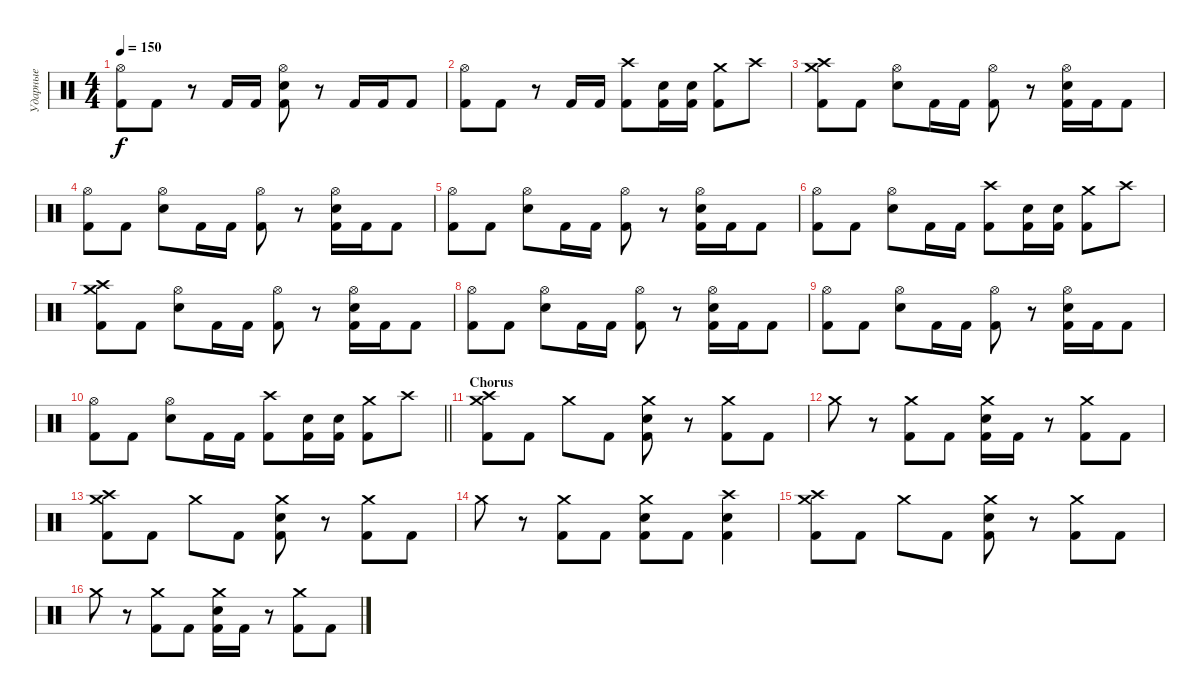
\track ("Ударные" "Ударные") {instrument percussion}
\staff {score}
\articulation defaults
\ts (4 4)
\tempo 150
\clef neutral
\ks c
("Hi-Hat (open)" "Kick (hit) 2").8{dy f} "Kick (hit) 2".8 r.8 "Kick (hit) 2".16 "Kick (hit) 2".16 ("Hi-Hat (open)" "Electric Snare (hit)" "Kick (hit) 2").8 r.8 "Kick (hit) 2".16 "Kick (hit) 2".16 "Kick (hit) 2".8 |
("Hi-Hat (open)" "Kick (hit) 2").8 "Kick (hit) 2".8 r.8 "Kick (hit) 2".16 "Kick (hit) 2".16 ("Crash high (hit)" "Kick (hit) 2").8 ("Electric Snare (hit)" "Kick (hit) 2").16 ("Electric Snare (hit)" "Kick (hit) 2").16 ("Crash medium (hit)" "Kick (hit) 2").8 "Crash high (hit)".8 |
("Crash high (hit)" "Crash medium (hit)" "Kick (hit) 2").8 "Kick (hit) 2".8 ("Hi-Hat (open)" "Electric Snare (hit)").8 "Kick (hit) 2".16 "Kick (hit) 2".16 ("Hi-Hat (open)" "Kick (hit) 2").8 r.8 ("Hi-Hat (open)" "Electric Snare (hit)" "Kick (hit) 2").16 "Kick (hit) 2".16 "Kick (hit) 2".8 |
("Hi-Hat (open)" "Kick (hit) 2").8 "Kick (hit) 2".8 ("Hi-Hat (open)" "Electric Snare (hit)").8 "Kick (hit) 2".16 "Kick (hit) 2".16 ("Hi-Hat (open)" "Kick (hit) 2").8 r.8 ("Hi-Hat (open)" "Electric Snare (hit)" "Kick (hit) 2").16 "Kick (hit) 2".16 "Kick (hit) 2".8 |
("Hi-Hat (open)" "Kick (hit) 2").8 "Kick (hit) 2".8 ("Hi-Hat (open)" "Electric Snare (hit)").8 "Kick (hit) 2".16 "Kick (hit) 2".16 ("Hi-Hat (open)" "Kick (hit) 2").8 r.8 ("Hi-Hat (open)" "Electric Snare (hit)" "Kick (hit) 2").16 "Kick (hit) 2".16 "Kick (hit) 2".8 |
("Hi-Hat (open)" "Kick (hit) 2").8 "Kick (hit) 2".8 ("Hi-Hat (open)" "Electric Snare (hit)").8 "Kick (hit) 2".16 "Kick (hit) 2".16 ("Crash high (hit)" "Kick (hit) 2").8 ("Electric Snare (hit)" "Kick (hit) 2").16 ("Electric Snare (hit)" "Kick (hit) 2").16 ("Crash medium (hit)" "Kick (hit) 2").8 "Crash high (hit)".8 |
("Crash high (hit)" "Crash medium (hit)" "Kick (hit) 2").8 "Kick (hit) 2".8 ("Hi-Hat (open)" "Electric Snare (hit)").8 "Kick (hit) 2".16 "Kick (hit) 2".16 ("Hi-Hat (open)" "Kick (hit) 2").8 r.8 ("Hi-Hat (open)" "Electric Snare (hit)" "Kick (hit) 2").16 "Kick (hit) 2".16 "Kick (hit) 2".8 |
("Hi-Hat (open)" "Kick (hit) 2").8 "Kick (hit) 2".8 ("Hi-Hat (open)" "Electric Snare (hit)").8 "Kick (hit) 2".16 "Kick (hit) 2".16 ("Hi-Hat (open)" "Kick (hit) 2").8 r.8 ("Hi-Hat (open)" "Electric Snare (hit)" "Kick (hit) 2").16 "Kick (hit) 2".16 "Kick (hit) 2".8 |
("Hi-Hat (open)" "Kick (hit) 2").8 "Kick (hit) 2".8 ("Hi-Hat (open)" "Electric Snare (hit)").8 "Kick (hit) 2".16 "Kick (hit) 2".16 ("Hi-Hat (open)" "Kick (hit) 2").8 r.8 ("Hi-Hat (open)" "Electric Snare (hit)" "Kick (hit) 2").16 "Kick (hit) 2".16 "Kick (hit) 2".8 |
\barLineRight lightlight
("Hi-Hat (open)" "Kick (hit) 2").8 "Kick (hit) 2".8 ("Hi-Hat (open)" "Electric Snare (hit)").8 "Kick (hit) 2".16 "Kick (hit) 2".16 ("Crash high (hit)" "Kick (hit) 2").8 ("Electric Snare (hit)" "Kick (hit) 2").16 ("Electric Snare (hit)" "Kick (hit) 2").16 ("Crash medium (hit)" "Kick (hit) 2").8 "Crash high (hit)".8 |
\section ("" "Chorus")
("Crash high (hit)" "Crash medium (hit)" "Kick (hit) 2").8 "Kick (hit) 2".8 "Crash medium (hit)".8 "Kick (hit) 2".8 ("Crash medium (hit)" "Electric Snare (hit)" "Kick (hit) 2").8 r.8 ("Crash medium (hit)" "Kick (hit) 2").8 "Kick (hit) 2".8 |
"Crash medium (hit)".8 r.8 ("Crash medium (hit)" "Kick (hit) 2").8 "Kick (hit) 2".8 ("Crash medium (hit)" "Electric Snare (hit)" "Kick (hit) 2").16 "Kick (hit) 2".16 r.8 ("Crash medium (hit)" "Kick (hit) 2").8 "Kick (hit) 2".8 |
("Crash high (hit)" "Crash medium (hit)" "Kick (hit) 2").8 "Kick (hit) 2".8 "Crash medium (hit)".8 "Kick (hit) 2".8 ("Crash medium (hit)" "Electric Snare (hit)" "Kick (hit) 2").8 r.8 ("Crash medium (hit)" "Kick (hit) 2").8 "Kick (hit) 2".8 |
"Crash medium (hit)".8 r.8 ("Crash medium (hit)" "Kick (hit) 2").8 "Kick (hit) 2".8 ("Crash medium (hit)" "Electric Snare (hit)" "Kick (hit) 2").8 "Kick (hit) 2".8 ("Crash high (hit)" "Electric Snare (hit)" "Kick (hit) 2").4 |
("Crash high (hit)" "Crash medium (hit)" "Kick (hit) 2").8 "Kick (hit) 2".8 "Crash medium (hit)".8 "Kick (hit) 2".8 ("Crash medium (hit)" "Electric Snare (hit)" "Kick (hit) 2").8 r.8 ("Crash medium (hit)" "Kick (hit) 2").8 "Kick (hit) 2".8 |
"Crash medium (hit)".8 r.8 ("Crash medium (hit)" "Kick (hit) 2").8 "Kick (hit) 2".8 ("Crash medium (hit)" "Electric Snare (hit)" "Kick (hit) 2").16 "Kick (hit) 2".16 r.8 ("Crash medium (hit)" "Kick (hit) 2").8 "Kick (hit) 2".8
